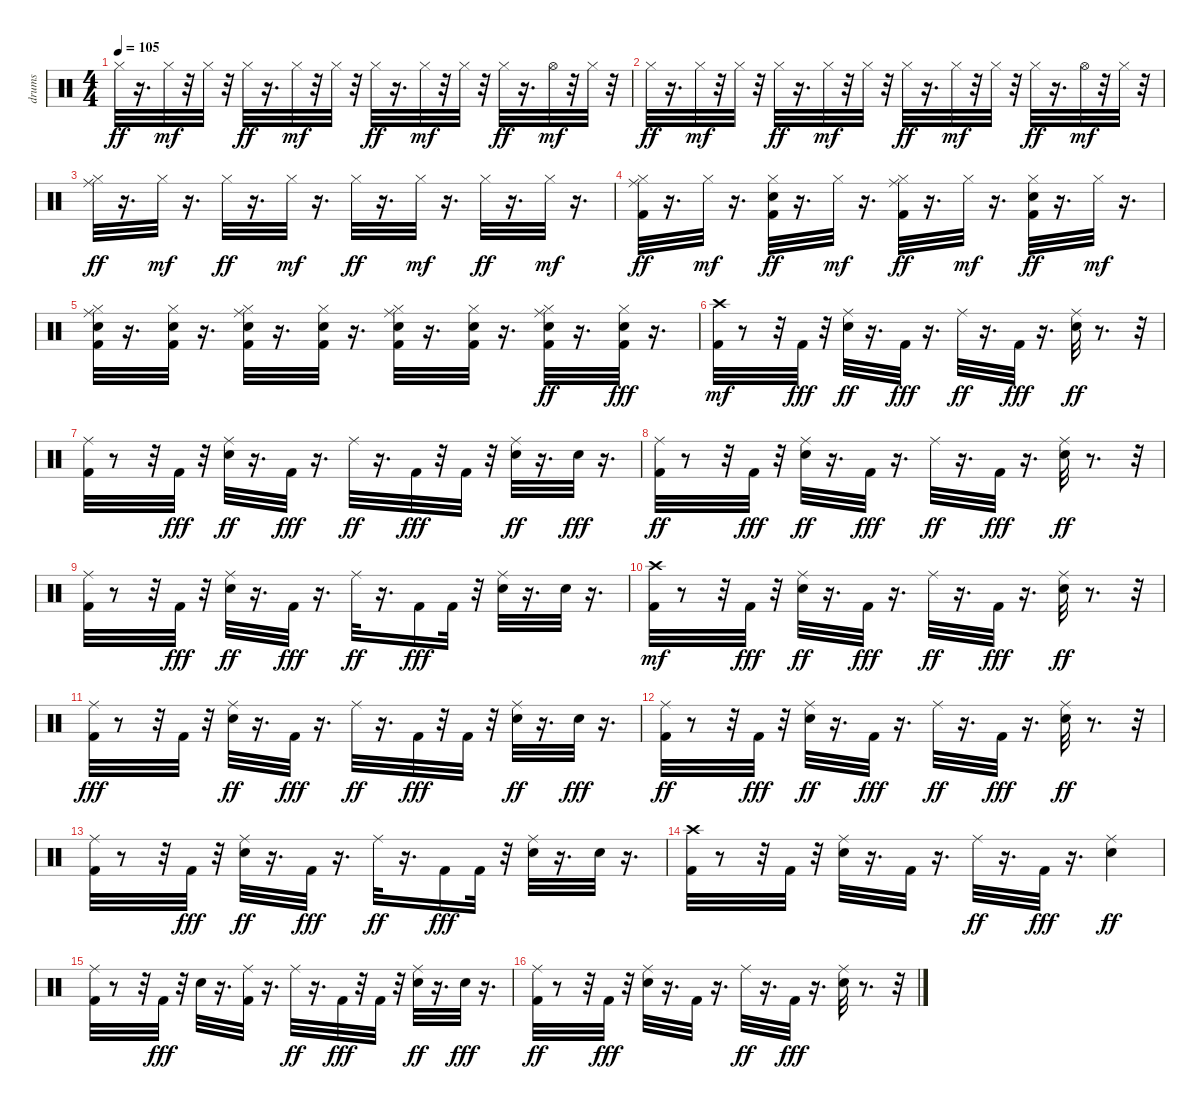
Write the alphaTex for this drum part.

\track ("drums" "drums") {instrument percussion}
\staff {score}
\articulation defaults
\ts (4 4)
\tempo 105
\clef neutral
\ks c "Hi-Hat (closed)".32{dy ff}
r.16{d} "Hi-Hat (closed)".32{dy mf} r.32 "Hi-Hat (closed)".32 r.32 "Hi-Hat (closed)".32{dy ff} r.16{d} "Hi-Hat (closed)".32{dy mf} r.32 "Hi-Hat (closed)".32 r.32 "Hi-Hat (closed)".32{dy ff} r.16{d} "Hi-Hat (closed)".32{dy mf} r.32 "Hi-Hat (closed)".32 r.32 "Hi-Hat (closed)".32{dy ff} r.16{d} "Hi-Hat (open)".32{dy mf} r.32 "Hi-Hat (closed)".32 r.32 |
"Hi-Hat (closed)".32{dy ff} r.16{d} "Hi-Hat (closed)".32{dy mf} r.32 "Hi-Hat (closed)".32 r.32 "Hi-Hat (closed)".32{dy ff} r.16{d} "Hi-Hat (closed)".32{dy mf} r.32 "Hi-Hat (closed)".32 r.32 "Hi-Hat (closed)".32{dy ff} r.16{d} "Hi-Hat (closed)".32{dy mf} r.32 "Hi-Hat (closed)".32 r.32 "Hi-Hat (closed)".32{dy ff} r.16{d} "Hi-Hat (open)".32{dy mf} r.32 "Hi-Hat (closed)".32 r.32 |
("Ride (middle)" "Hi-Hat (closed)").32{dy ff} r.16{d} "Hi-Hat (closed)".32{dy mf} r.16{d} "Hi-Hat (closed)".32{dy ff} r.16{d} "Hi-Hat (closed)".32{dy mf} r.16{d} "Hi-Hat (closed)".32{dy ff} r.16{d} "Hi-Hat (closed)".32{dy mf} r.16{d} "Hi-Hat (closed)".32{dy ff} r.16{d} "Hi-Hat (closed)".32{dy mf} r.16{d} |
("Kick (hit) 2" "Ride (middle)" "Hi-Hat (closed)").32{dy ff} r.16{d} "Hi-Hat (closed)".32{dy mf} r.16{d} ("Kick (hit) 2" "Hi-Hat (closed)" "Electric Snare (hit)").32{dy ff} r.16{d} "Hi-Hat (closed)".32{dy mf} r.16{d} ("Kick (hit) 2" "Hi-Hat (closed)" "Ride (middle)").32{dy ff} r.16{d} "Hi-Hat (closed)".32{dy mf} r.16{d} ("Kick (hit) 2" "Hi-Hat (closed)" "Electric Snare (hit)").32{dy ff} r.16{d} "Hi-Hat (closed)".32{dy mf} r.16{d} |
("Ride (middle)" "Kick (hit) 2" "Hi-Hat (closed)" "Electric Snare (hit)").32 r.16{d} ("Kick (hit) 2" "Hi-Hat (closed)" "Electric Snare (hit)").32 r.16{d} ("Kick (hit) 2" "Ride (middle)" "Electric Snare (hit)" "Hi-Hat (closed)").32 r.16{d} ("Kick (hit) 2" "Hi-Hat (closed)" "Electric Snare (hit)").32 r.16{d} ("Ride (middle)" "Kick (hit) 2" "Hi-Hat (closed)" "Electric Snare (hit)").32 r.16{d} ("Kick (hit) 2" "Hi-Hat (closed)" "Electric Snare (hit)").32 r.16{d} ("Electric Snare (hit)" "Kick (hit) 2" "Hi-Hat (closed)" "Ride (middle)").32{dy ff} r.16{d} ("Electric Snare (hit)" "Hi-Hat (closed)" "Kick (hit) 2").32{dy fff} r.16{d} |
("Kick (hit) 2" "Crash high (hit)").32{dy mf} r.8 r.32 "Kick (hit) 2".32{dy fff} r.32 ("Electric Snare (hit)" "Ride (middle)").32{dy ff} r.16{d} "Kick (hit) 2".32{dy fff} r.16{d} "Ride (middle)".32{dy ff} r.16{d} "Kick (hit) 2".32{dy fff} r.16{d} ("Electric Snare (hit)" "Ride (middle)").32{dy ff} r.8{d} r.32 |
("Kick (hit) 2" "Ride (middle)").32 r.8 r.32 "Kick (hit) 2".32{dy fff} r.32 ("Electric Snare (hit)" "Ride (middle)").32{dy ff} r.16{d} "Kick (hit) 2".32{dy fff} r.16{d} "Ride (middle)".32{dy ff} r.16{d} "Kick (hit) 2".32{dy fff} r.32 "Kick (hit) 2".32 r.32 ("Electric Snare (hit)" "Ride (middle)").32{dy ff} r.16{d} "Electric Snare (hit)".32{dy fff} r.16{d} |
("Kick (hit) 2" "Ride (middle)").32{dy ff} r.8 r.32 "Kick (hit) 2".32{dy fff} r.32 ("Electric Snare (hit)" "Ride (middle)").32{dy ff} r.16{d} "Kick (hit) 2".32{dy fff} r.16{d} "Ride (middle)".32{dy ff} r.16{d} "Kick (hit) 2".32{dy fff} r.16{d} ("Electric Snare (hit)" "Ride (middle)").32{dy ff} r.8{d} r.32 |
("Kick (hit) 2" "Ride (middle)").32 r.8 r.32 "Kick (hit) 2".32{dy fff} r.32 ("Electric Snare (hit)" "Ride (middle)").32{dy ff} r.16{d} "Kick (hit) 2".32{dy fff} r.16{d} "Ride (middle)".32{dy ff} r.16{d} "Kick (hit) 2".16{dy fff} "Kick (hit) 2".32 r.32 ("Ride (middle)" "Electric Snare (hit)").32 r.16{d} "Electric Snare (hit)".32 r.16{d} |
("Kick (hit) 2" "Crash high (hit)").32{dy mf} r.8 r.32 "Kick (hit) 2".32{dy fff} r.32 ("Electric Snare (hit)" "Ride (middle)").32{dy ff} r.16{d} "Kick (hit) 2".32{dy fff} r.16{d} "Ride (middle)".32{dy ff} r.16{d} "Kick (hit) 2".32{dy fff} r.16{d} ("Electric Snare (hit)" "Ride (middle)").32{dy ff} r.8{d} r.32 |
("Ride (middle)" "Kick (hit) 2").32{dy fff} r.8 r.32 "Kick (hit) 2".32 r.32 ("Electric Snare (hit)" "Ride (middle)").32{dy ff} r.16{d} "Kick (hit) 2".32{dy fff} r.16{d} "Ride (middle)".32{dy ff} r.16{d} "Kick (hit) 2".32{dy fff} r.32 "Kick (hit) 2".32 r.32 ("Electric Snare (hit)" "Ride (middle)").32{dy ff} r.16{d} "Electric Snare (hit)".32{dy fff} r.16{d} |
("Kick (hit) 2" "Ride (middle)").32{dy ff} r.8 r.32 "Kick (hit) 2".32{dy fff} r.32 ("Electric Snare (hit)" "Ride (middle)").32{dy ff} r.16{d} "Kick (hit) 2".32{dy fff} r.16{d} "Ride (middle)".32{dy ff} r.16{d} "Kick (hit) 2".32{dy fff} r.16{d} ("Electric Snare (hit)" "Ride (middle)").32{dy ff} r.8{d} r.32 |
("Kick (hit) 2" "Ride (middle)").32 r.8 r.32 "Kick (hit) 2".32{dy fff} r.32 ("Electric Snare (hit)" "Ride (middle)").32{dy ff} r.16{d} "Kick (hit) 2".32{dy fff} r.16{d} "Ride (middle)".32{dy ff} r.16{d} "Kick (hit) 2".16{dy fff} "Kick (hit) 2".32 r.32 ("Ride (middle)" "Electric Snare (hit)").32 r.16{d} "Electric Snare (hit)".32 r.16{d} |
("Crash high (hit)" "Kick (hit) 2").32 r.8 r.32 "Kick (hit) 2".32 r.32 ("Ride (middle)" "Electric Snare (hit)").32 r.16{d} "Kick (hit) 2".32 r.16{d} "Ride (middle)".32{dy ff} r.16{d} "Kick (hit) 2".32{dy fff} r.16{d} ("Electric Snare (hit)" "Ride (middle)").4{dy ff} |
("Kick (hit) 2" "Ride (middle)").32 r.8 r.32 "Kick (hit) 2".32{dy fff} r.32 "Electric Snare (hit)".32 r.16{d} ("Ride (middle)" "Kick (hit) 2").32 r.16{d} "Ride (middle)".32{dy ff} r.16{d} "Kick (hit) 2".32{dy fff} r.32 "Kick (hit) 2".32 r.32 ("Electric Snare (hit)" "Ride (middle)").32{dy ff} r.16{d} "Electric Snare (hit)".32{dy fff} r.16{d} |
("Kick (hit) 2" "Ride (middle)").32{dy ff} r.8 r.32 "Kick (hit) 2".32{dy fff} r.32 ("Ride (middle)" "Electric Snare (hit)").32 r.16{d} "Kick (hit) 2".32 r.16{d} "Ride (middle)".32{dy ff} r.16{d} "Kick (hit) 2".32{dy fff} r.16{d} ("Ride (middle)" "Electric Snare (hit)").32 r.8{d} r.32
